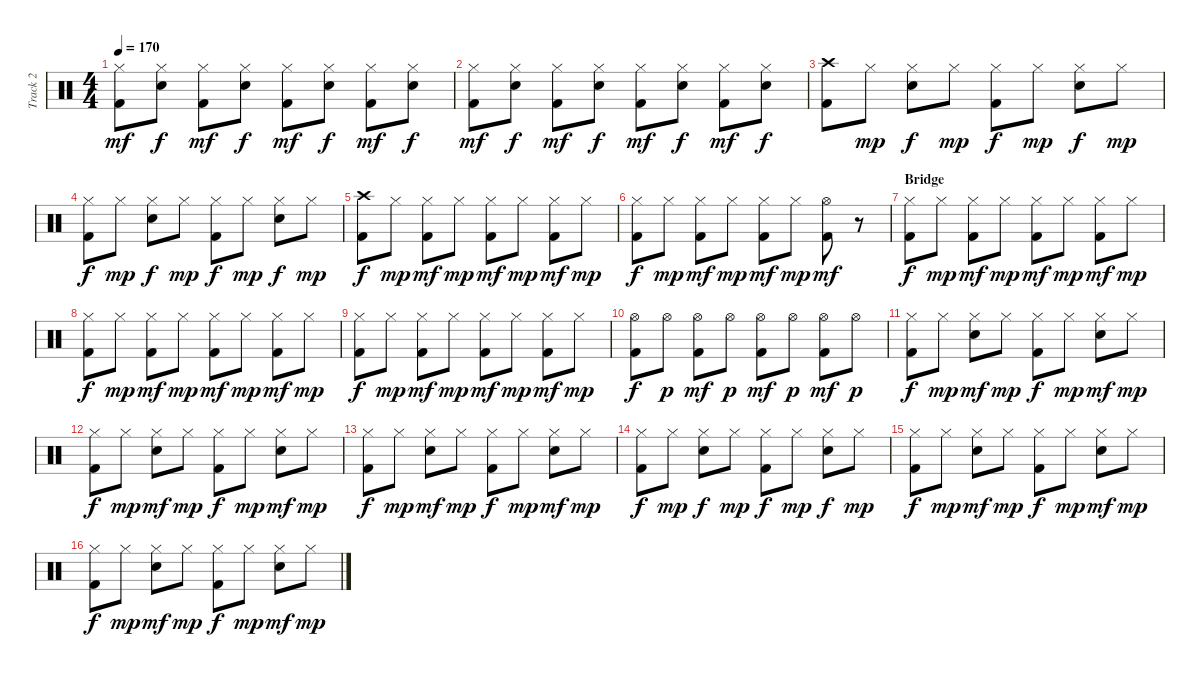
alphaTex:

\track ("Track 2" "Track 2") {instrument percussion}
\staff {score}
\articulation defaults
\ts (4 4)
\tempo 170
\clef neutral
\ks c
("Hi-Hat (closed)" "Kick (hit) 2").8{dy mf} ("Hi-Hat (closed)" "Electric Snare (hit)").8{dy f} ("Hi-Hat (closed)" "Kick (hit) 2").8{dy mf} ("Hi-Hat (closed)" "Electric Snare (hit)").8{dy f} ("Hi-Hat (closed)" "Kick (hit) 2").8{dy mf} ("Hi-Hat (closed)" "Electric Snare (hit)").8{dy f} ("Hi-Hat (closed)" "Kick (hit) 2").8{dy mf} ("Hi-Hat (closed)" "Electric Snare (hit)").8{dy f} |
("Hi-Hat (closed)" "Kick (hit) 2").8{dy mf} ("Hi-Hat (closed)" "Electric Snare (hit)").8{dy f} ("Hi-Hat (closed)" "Kick (hit) 2").8{dy mf} ("Hi-Hat (closed)" "Electric Snare (hit)").8{dy f} ("Hi-Hat (closed)" "Kick (hit) 2").8{dy mf} ("Hi-Hat (closed)" "Electric Snare (hit)").8{dy f} ("Hi-Hat (closed)" "Kick (hit) 2").8{dy mf} ("Hi-Hat (closed)" "Electric Snare (hit)").8{dy f} |
("Crash high (hit)" "Kick (hit) 2").8 "Hi-Hat (closed)".8{dy mp} ("Hi-Hat (closed)" "Electric Snare (hit)").8{dy f} "Hi-Hat (closed)".8{dy mp} ("Hi-Hat (closed)" "Kick (hit) 2").8{dy f} "Hi-Hat (closed)".8{dy mp} ("Hi-Hat (closed)" "Electric Snare (hit)").8{dy f} "Hi-Hat (closed)".8{dy mp} |
("Hi-Hat (closed)" "Kick (hit) 2").8{dy f} "Hi-Hat (closed)".8{dy mp} ("Hi-Hat (closed)" "Electric Snare (hit)").8{dy f} "Hi-Hat (closed)".8{dy mp} ("Hi-Hat (closed)" "Kick (hit) 2").8{dy f} "Hi-Hat (closed)".8{dy mp} ("Hi-Hat (closed)" "Electric Snare (hit)").8{dy f} "Hi-Hat (closed)".8{dy mp} |
("Crash high (hit)" "Kick (hit) 2").8{dy f} "Hi-Hat (closed)".8{dy mp} ("Hi-Hat (closed)" "Kick (hit) 2").8{dy mf} "Hi-Hat (closed)".8{dy mp} ("Hi-Hat (closed)" "Kick (hit) 2").8{dy mf} "Hi-Hat (closed)".8{dy mp} ("Hi-Hat (closed)" "Kick (hit) 2").8{dy mf} "Hi-Hat (closed)".8{dy mp} |
("Hi-Hat (closed)" "Kick (hit) 2").8{dy f} "Hi-Hat (closed)".8{dy mp} ("Hi-Hat (closed)" "Kick (hit) 2").8{dy mf} "Hi-Hat (closed)".8{dy mp} ("Hi-Hat (closed)" "Kick (hit) 2").8{dy mf} "Hi-Hat (closed)".8{dy mp} ("Hi-Hat (open)" "Kick (hit) 2").8{dy mf} r.8 |
\section ("" "Bridge")
("Hi-Hat (closed)" "Kick (hit) 2").8{dy f} "Hi-Hat (closed)".8{dy mp} ("Hi-Hat (closed)" "Kick (hit) 2").8{dy mf} "Hi-Hat (closed)".8{dy mp} ("Hi-Hat (closed)" "Kick (hit) 2").8{dy mf} "Hi-Hat (closed)".8{dy mp} ("Hi-Hat (closed)" "Kick (hit) 2").8{dy mf} "Hi-Hat (closed)".8{dy mp} |
("Hi-Hat (closed)" "Kick (hit) 2").8{dy f} "Hi-Hat (closed)".8{dy mp} ("Hi-Hat (closed)" "Kick (hit) 2").8{dy mf} "Hi-Hat (closed)".8{dy mp} ("Hi-Hat (closed)" "Kick (hit) 2").8{dy mf} "Hi-Hat (closed)".8{dy mp} ("Hi-Hat (closed)" "Kick (hit) 2").8{dy mf} "Hi-Hat (closed)".8{dy mp} |
("Hi-Hat (closed)" "Kick (hit) 2").8{dy f} "Hi-Hat (closed)".8{dy mp} ("Hi-Hat (closed)" "Kick (hit) 2").8{dy mf} "Hi-Hat (closed)".8{dy mp} ("Hi-Hat (closed)" "Kick (hit) 2").8{dy mf} "Hi-Hat (closed)".8{dy mp} ("Hi-Hat (closed)" "Kick (hit) 2").8{dy mf} "Hi-Hat (closed)".8{dy mp} |
("Hi-Hat (open)" "Kick (hit) 2").8{dy f} "Hi-Hat (open)".8{dy p} ("Hi-Hat (open)" "Kick (hit) 2").8{dy mf} "Hi-Hat (open)".8{dy p} ("Hi-Hat (open)" "Kick (hit) 2").8{dy mf} "Hi-Hat (open)".8{dy p} ("Hi-Hat (open)" "Kick (hit) 2").8{dy mf} "Hi-Hat (open)".8{dy p} |
("Hi-Hat (closed)" "Kick (hit) 2").8{dy f} "Hi-Hat (closed)".8{dy mp} ("Hi-Hat (closed)" "Electric Snare (hit)").8{dy mf} "Hi-Hat (closed)".8{dy mp} ("Hi-Hat (closed)" "Kick (hit) 2").8{dy f} "Hi-Hat (closed)".8{dy mp} ("Hi-Hat (closed)" "Electric Snare (hit)").8{dy mf} "Hi-Hat (closed)".8{dy mp} |
("Hi-Hat (closed)" "Kick (hit) 2").8{dy f} "Hi-Hat (closed)".8{dy mp} ("Hi-Hat (closed)" "Electric Snare (hit)").8{dy mf} "Hi-Hat (closed)".8{dy mp} ("Hi-Hat (closed)" "Kick (hit) 2").8{dy f} "Hi-Hat (closed)".8{dy mp} ("Hi-Hat (closed)" "Electric Snare (hit)").8{dy mf} "Hi-Hat (closed)".8{dy mp} |
("Hi-Hat (closed)" "Kick (hit) 2").8{dy f} "Hi-Hat (closed)".8{dy mp} ("Hi-Hat (closed)" "Electric Snare (hit)").8{dy mf} "Hi-Hat (closed)".8{dy mp} ("Hi-Hat (closed)" "Kick (hit) 2").8{dy f} "Hi-Hat (closed)".8{dy mp} ("Hi-Hat (closed)" "Electric Snare (hit)").8{dy mf} "Hi-Hat (closed)".8{dy mp} |
("Hi-Hat (closed)" "Kick (hit) 2").8{dy f} "Hi-Hat (closed)".8{dy mp} ("Hi-Hat (closed)" "Electric Snare (hit)").8{dy f} "Hi-Hat (closed)".8{dy mp} ("Hi-Hat (closed)" "Kick (hit) 2").8{dy f} "Hi-Hat (closed)".8{dy mp} ("Hi-Hat (closed)" "Electric Snare (hit)").8{dy f} "Hi-Hat (closed)".8{dy mp} |
("Hi-Hat (closed)" "Kick (hit) 2").8{dy f} "Hi-Hat (closed)".8{dy mp} ("Hi-Hat (closed)" "Electric Snare (hit)").8{dy mf} "Hi-Hat (closed)".8{dy mp} ("Hi-Hat (closed)" "Kick (hit) 2").8{dy f} "Hi-Hat (closed)".8{dy mp} ("Hi-Hat (closed)" "Electric Snare (hit)").8{dy mf} "Hi-Hat (closed)".8{dy mp} |
("Hi-Hat (closed)" "Kick (hit) 2").8{dy f} "Hi-Hat (closed)".8{dy mp} ("Hi-Hat (closed)" "Electric Snare (hit)").8{dy mf} "Hi-Hat (closed)".8{dy mp} ("Hi-Hat (closed)" "Kick (hit) 2").8{dy f} "Hi-Hat (closed)".8{dy mp} ("Hi-Hat (closed)" "Electric Snare (hit)").8{dy mf} "Hi-Hat (closed)".8{dy mp}
